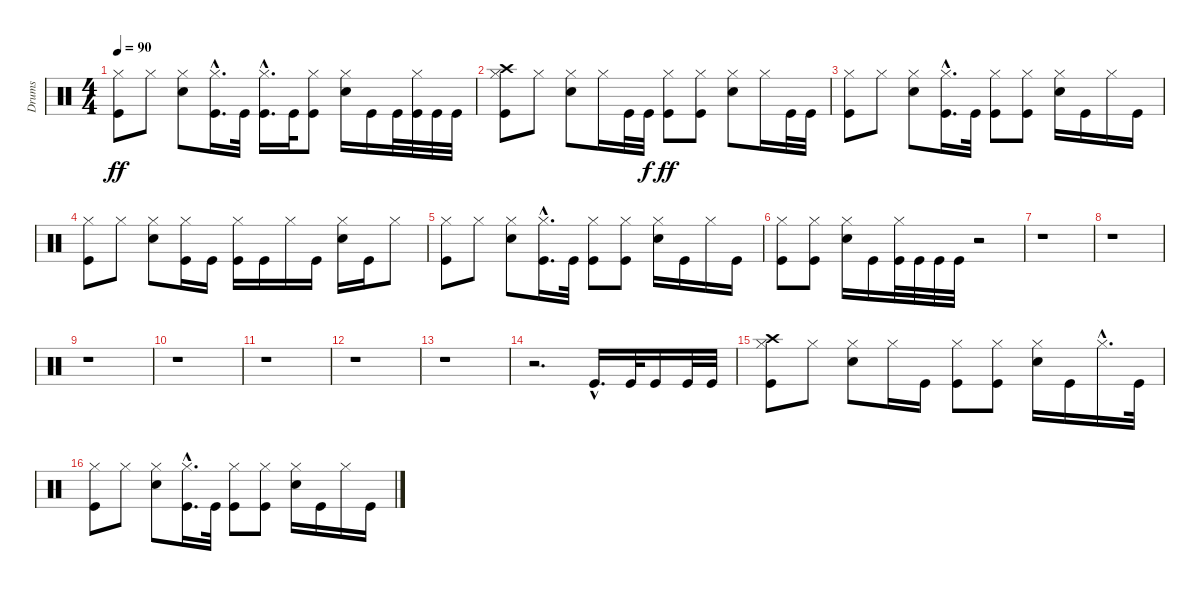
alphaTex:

\track ("Drums" "Drums") {instrument percussion}
\staff {score}
\articulation defaults
\ts (4 4)
\tempo 90
\clef neutral
\ks c
("Kick (hit)" "Hi-Hat (closed)").8{dy ff} "Hi-Hat (closed)".8 ("Electric Snare (hit)" "Hi-Hat (closed)").8 ("Kick (hit)"{hac} "Hi-Hat (closed)"{hac}).16{d} "Kick (hit)".32 ("Kick (hit)"{hac} "Hi-Hat (closed)"{hac}).16{d} "Kick (hit)".32 ("Kick (hit)" "Hi-Hat (closed)").8 ("Electric Snare (hit)" "Hi-Hat (closed)").16 "Kick (hit)".16 "Kick (hit)".32 ("Kick (hit)" "Hi-Hat (closed)").32 "Kick (hit)".32 "Kick (hit)".32 |
("Kick (hit)" "Hi-Hat (closed)" "Crash high (hit)").8 "Hi-Hat (closed)".8 ("Electric Snare (hit)" "Hi-Hat (closed)").8 "Hi-Hat (closed)".16 "Kick (hit)".32 "Kick (hit)".32{dy f} ("Kick (hit)" "Hi-Hat (closed)").8{dy ff} ("Kick (hit)" "Hi-Hat (closed)").8 ("Electric Snare (hit)" "Hi-Hat (closed)").8 "Hi-Hat (closed)".16 "Kick (hit)".32 "Kick (hit)".32 |
("Kick (hit)" "Hi-Hat (closed)").8 "Hi-Hat (closed)".8 ("Electric Snare (hit)" "Hi-Hat (closed)").8 ("Kick (hit)"{hac} "Hi-Hat (closed)"{hac}).16{d} "Kick (hit)".32 ("Kick (hit)" "Hi-Hat (closed)").8 ("Kick (hit)" "Hi-Hat (closed)").8 ("Electric Snare (hit)" "Hi-Hat (closed)").16 "Kick (hit)".16 "Hi-Hat (closed)".16 "Kick (hit)".16 |
("Kick (hit)" "Hi-Hat (closed)").8 "Hi-Hat (closed)".8 ("Electric Snare (hit)" "Hi-Hat (closed)").8 ("Kick (hit)" "Hi-Hat (closed)").16 "Kick (hit)".16 ("Kick (hit)" "Hi-Hat (closed)").16 "Kick (hit)".16 "Hi-Hat (closed)".16 "Kick (hit)".16 ("Electric Snare (hit)" "Hi-Hat (closed)").16 "Kick (hit)".16 "Hi-Hat (closed)".8 |
("Kick (hit)" "Hi-Hat (closed)").8 "Hi-Hat (closed)".8 ("Electric Snare (hit)" "Hi-Hat (closed)").8 ("Kick (hit)"{hac} "Hi-Hat (closed)"{hac}).16{d} "Kick (hit)".32 ("Kick (hit)" "Hi-Hat (closed)").8 ("Kick (hit)" "Hi-Hat (closed)").8 ("Electric Snare (hit)" "Hi-Hat (closed)").16 "Kick (hit)".16 "Hi-Hat (closed)".16 "Kick (hit)".16 |
("Kick (hit)" "Hi-Hat (closed)").8 ("Kick (hit)" "Hi-Hat (closed)").8 ("Electric Snare (hit)" "Hi-Hat (closed)").16 "Kick (hit)".16 ("Kick (hit)" "Hi-Hat (closed)").32 "Kick (hit)".32 "Kick (hit)".32 "Kick (hit)".32 r.2 |
r.1 |
r.1 |
r.1 |
r.1 |
r.1 |
r.1 |
r.1 |
r.2{d} "Kick (hit)"{hac}.16{d} "Kick (hit)".32 "Kick (hit)".16 "Kick (hit)".32 "Kick (hit)".32 |
("Kick (hit)" "Hi-Hat (closed)" "Crash high (hit)").8 "Hi-Hat (closed)".8 ("Electric Snare (hit)" "Hi-Hat (closed)").8 "Hi-Hat (closed)".16 "Kick (hit)".16 ("Kick (hit)" "Hi-Hat (closed)").8 ("Kick (hit)" "Hi-Hat (closed)").8 ("Electric Snare (hit)" "Hi-Hat (closed)").16 "Kick (hit)".16 "Hi-Hat (closed)"{hac}.16{d} "Kick (hit)".32 |
("Kick (hit)" "Hi-Hat (closed)").8 "Hi-Hat (closed)".8 ("Electric Snare (hit)" "Hi-Hat (closed)").8 ("Kick (hit)"{hac} "Hi-Hat (closed)"{hac}).16{d} "Kick (hit)".32 ("Kick (hit)" "Hi-Hat (closed)").8 ("Kick (hit)" "Hi-Hat (closed)").8 ("Electric Snare (hit)" "Hi-Hat (closed)").16 "Kick (hit)".16 "Hi-Hat (closed)".16 "Kick (hit)".16
